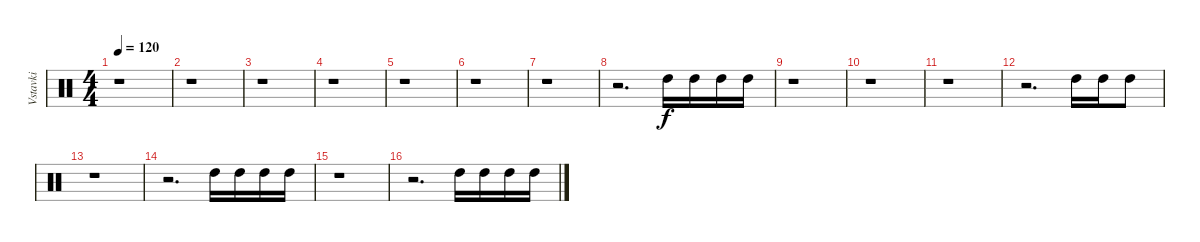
\track ("Vstavki" "Vstavki") {instrument percussion}
\staff {score}
\articulation defaults
\ts (4 4)
\tempo 120
\clef neutral
\ks c
r.1{dy f} |
r.1 |
r.1 |
r.1 |
r.1 |
r.1 |
r.1 |
r.2{d} "High Tom (hit)".16 "High Tom (hit)".16 "High Tom (hit)".16 "High Tom (hit)".16 |
r.1 |
r.1 |
r.1 |
r.2{d} "High Tom (hit)".16 "High Tom (hit)".16 "High Tom (hit)".8 |
r.1 |
r.2{d} "High Tom (hit)".16 "High Tom (hit)".16 "High Tom (hit)".16 "High Tom (hit)".16 |
r.1 |
r.2{d} "High Tom (hit)".16 "High Tom (hit)".16 "High Tom (hit)".16 "High Tom (hit)".16
